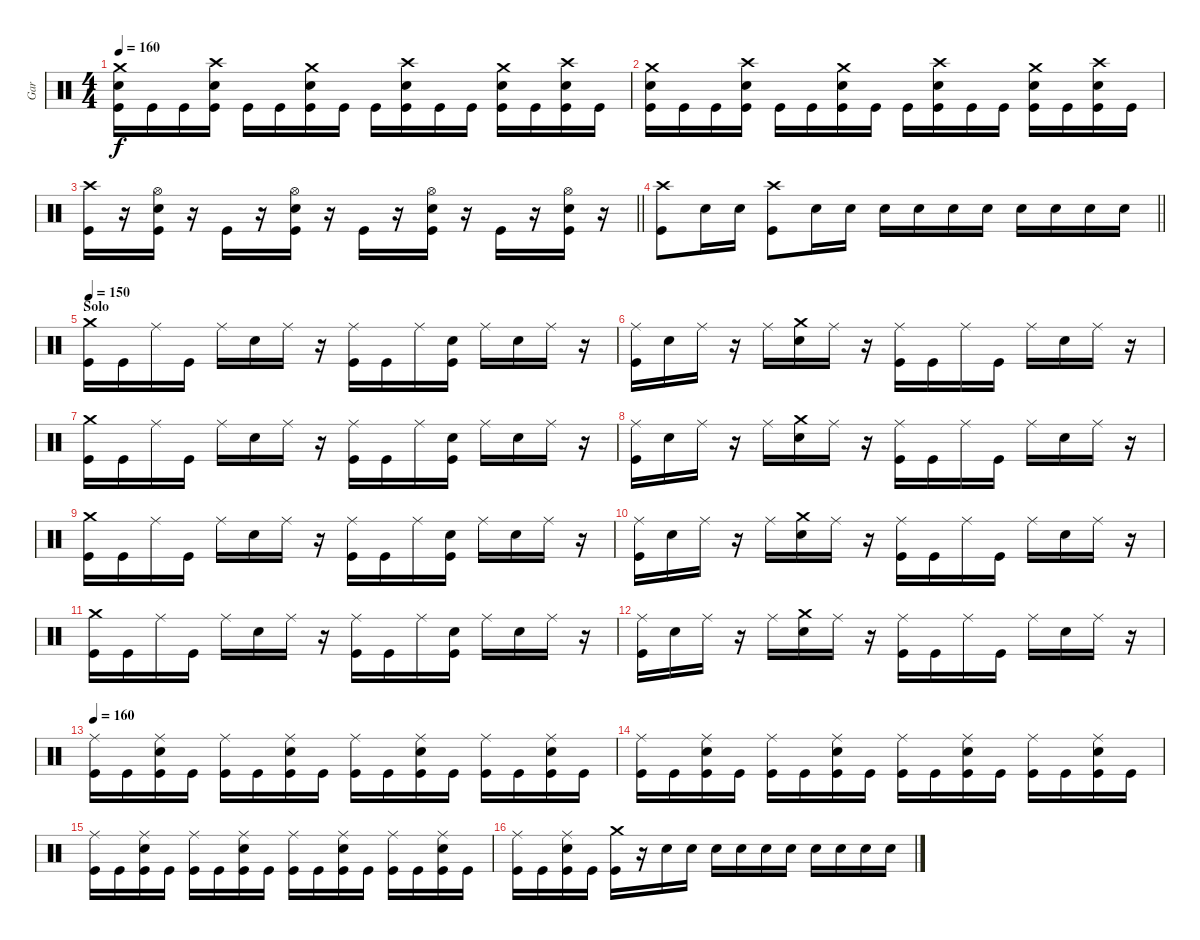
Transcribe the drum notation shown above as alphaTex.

\track ("Gar" "Gar") {instrument percussion}
\staff {score}
\articulation defaults
\ts (4 4)
\tempo 160
\clef neutral
\ks c
("Crash medium (hit)" "Snare (hit) 2" "Kick (hit)").16{dy f} "Kick (hit)".16 "Kick (hit)".16 ("Crash high (hit)" "Snare (hit) 2" "Kick (hit)").16 "Kick (hit)".16 "Kick (hit)".16 ("Crash medium (hit)" "Snare (hit) 2" "Kick (hit)").16 "Kick (hit)".16 "Kick (hit)".16 ("Crash high (hit)" "Snare (hit) 2" "Kick (hit)").16 "Kick (hit)".16 "Kick (hit)".16 ("Crash medium (hit)" "Snare (hit) 2" "Kick (hit)").16 "Kick (hit)".16 ("Crash high (hit)" "Snare (hit) 2" "Kick (hit)").16 "Kick (hit)".16 |
("Crash medium (hit)" "Snare (hit) 2" "Kick (hit)").16 "Kick (hit)".16 "Kick (hit)".16 ("Crash high (hit)" "Snare (hit) 2" "Kick (hit)").16 "Kick (hit)".16 "Kick (hit)".16 ("Crash medium (hit)" "Snare (hit) 2" "Kick (hit)").16 "Kick (hit)".16 "Kick (hit)".16 ("Crash high (hit)" "Snare (hit) 2" "Kick (hit)").16 "Kick (hit)".16 "Kick (hit)".16 ("Crash medium (hit)" "Snare (hit) 2" "Kick (hit)").16 "Kick (hit)".16 ("Crash high (hit)" "Snare (hit) 2" "Kick (hit)").16 "Kick (hit)".16 |
\barLineRight lightlight
("Crash high (hit)" "Kick (hit)").16 r.16 ("Hi-Hat (open)" "Snare (hit) 2" "Kick (hit)").16 r.16 "Kick (hit)".16 r.16 ("Hi-Hat (open)" "Snare (hit) 2" "Kick (hit)").16 r.16 "Kick (hit)".16 r.16 ("Hi-Hat (open)" "Snare (hit) 2" "Kick (hit)").16 r.16 "Kick (hit)".16 r.16 ("Hi-Hat (open)" "Snare (hit) 2" "Kick (hit)").16 r.16 |
\barLineRight lightlight
("Crash high (hit)" "Kick (hit)").8 "Snare (hit) 2".16 "Snare (hit) 2".16 ("Crash high (hit)" "Kick (hit)").8 "Snare (hit) 2".16 "Snare (hit) 2".16 "Snare (hit) 2".16 "Snare (hit) 2".16 "Snare (hit) 2".16 "Snare (hit) 2".16 "Snare (hit) 2".16 "Snare (hit) 2".16 "Snare (hit) 2".16 "Snare (hit) 2".16 |
\section ("" "Solo")
\tempo 150
("Crash medium (hit)" "Kick (hit)").16 "Kick (hit)".16 "Ride (middle)".16 "Kick (hit)".16 "Ride (middle)".16 "Snare (hit) 2".16 "Ride (middle)".16 r.16 ("Ride (middle)" "Kick (hit)").16 "Kick (hit)".16 "Ride (middle)".16 ("Snare (hit) 2" "Kick (hit)").16 "Ride (middle)".16 "Snare (hit) 2".16 "Ride (middle)".16 r.16 |
("Ride (middle)" "Kick (hit)").16 "Snare (hit) 2".16 "Ride (middle)".16 r.16 "Ride (middle)".16 ("Crash medium (hit)" "Snare (hit) 2").16 "Ride (middle)".16 r.16 ("Ride (middle)" "Kick (hit)").16 "Kick (hit)".16 "Ride (middle)".16 "Kick (hit)".16 "Ride (middle)".16 "Snare (hit) 2".16 "Ride (middle)".16 r.16 |
("Crash medium (hit)" "Kick (hit)").16 "Kick (hit)".16 "Ride (middle)".16 "Kick (hit)".16 "Ride (middle)".16 "Snare (hit) 2".16 "Ride (middle)".16 r.16 ("Ride (middle)" "Kick (hit)").16 "Kick (hit)".16 "Ride (middle)".16 ("Snare (hit) 2" "Kick (hit)").16 "Ride (middle)".16 "Snare (hit) 2".16 "Ride (middle)".16 r.16 |
("Ride (middle)" "Kick (hit)").16 "Snare (hit) 2".16 "Ride (middle)".16 r.16 "Ride (middle)".16 ("Crash medium (hit)" "Snare (hit) 2").16 "Ride (middle)".16 r.16 ("Ride (middle)" "Kick (hit)").16 "Kick (hit)".16 "Ride (middle)".16 "Kick (hit)".16 "Ride (middle)".16 "Snare (hit) 2".16 "Ride (middle)".16 r.16 |
("Crash medium (hit)" "Kick (hit)").16 "Kick (hit)".16 "Ride (middle)".16 "Kick (hit)".16 "Ride (middle)".16 "Snare (hit) 2".16 "Ride (middle)".16 r.16 ("Ride (middle)" "Kick (hit)").16 "Kick (hit)".16 "Ride (middle)".16 ("Snare (hit) 2" "Kick (hit)").16 "Ride (middle)".16 "Snare (hit) 2".16 "Ride (middle)".16 r.16 |
("Ride (middle)" "Kick (hit)").16 "Snare (hit) 2".16 "Ride (middle)".16 r.16 "Ride (middle)".16 ("Crash medium (hit)" "Snare (hit) 2").16 "Ride (middle)".16 r.16 ("Ride (middle)" "Kick (hit)").16 "Kick (hit)".16 "Ride (middle)".16 "Kick (hit)".16 "Ride (middle)".16 "Snare (hit) 2".16 "Ride (middle)".16 r.16 |
("Crash medium (hit)" "Kick (hit)").16 "Kick (hit)".16 "Ride (middle)".16 "Kick (hit)".16 "Ride (middle)".16 "Snare (hit) 2".16 "Ride (middle)".16 r.16 ("Ride (middle)" "Kick (hit)").16 "Kick (hit)".16 "Ride (middle)".16 ("Snare (hit) 2" "Kick (hit)").16 "Ride (middle)".16 "Snare (hit) 2".16 "Ride (middle)".16 r.16 |
("Ride (middle)" "Kick (hit)").16 "Snare (hit) 2".16 "Ride (middle)".16 r.16 "Ride (middle)".16 ("Crash medium (hit)" "Snare (hit) 2").16 "Ride (middle)".16 r.16 ("Ride (middle)" "Kick (hit)").16 "Kick (hit)".16 "Ride (middle)".16 "Kick (hit)".16 "Ride (middle)".16 "Snare (hit) 2".16 "Ride (middle)".16 r.16 |
\tempo 160
("Ride (middle)" "Kick (hit)").16 "Kick (hit)".16 ("Ride (middle)" "Snare (hit) 2" "Kick (hit)").16 "Kick (hit)".16 ("Ride (middle)" "Kick (hit)").16 "Kick (hit)".16 ("Ride (middle)" "Snare (hit) 2" "Kick (hit)").16 "Kick (hit)".16 ("Ride (middle)" "Kick (hit)").16 "Kick (hit)".16 ("Ride (middle)" "Snare (hit) 2" "Kick (hit)").16 "Kick (hit)".16 ("Ride (middle)" "Kick (hit)").16 "Kick (hit)".16 ("Ride (middle)" "Snare (hit) 2" "Kick (hit)").16 "Kick (hit)".16 |
("Ride (middle)" "Kick (hit)").16 "Kick (hit)".16 ("Ride (middle)" "Snare (hit) 2" "Kick (hit)").16 "Kick (hit)".16 ("Ride (middle)" "Kick (hit)").16 "Kick (hit)".16 ("Ride (middle)" "Snare (hit) 2" "Kick (hit)").16 "Kick (hit)".16 ("Ride (middle)" "Kick (hit)").16 "Kick (hit)".16 ("Ride (middle)" "Snare (hit) 2" "Kick (hit)").16 "Kick (hit)".16 ("Ride (middle)" "Kick (hit)").16 "Kick (hit)".16 ("Ride (middle)" "Snare (hit) 2" "Kick (hit)").16 "Kick (hit)".16 |
("Ride (middle)" "Kick (hit)").16 "Kick (hit)".16 ("Ride (middle)" "Snare (hit) 2" "Kick (hit)").16 "Kick (hit)".16 ("Ride (middle)" "Kick (hit)").16 "Kick (hit)".16 ("Ride (middle)" "Snare (hit) 2" "Kick (hit)").16 "Kick (hit)".16 ("Ride (middle)" "Kick (hit)").16 "Kick (hit)".16 ("Ride (middle)" "Snare (hit) 2" "Kick (hit)").16 "Kick (hit)".16 ("Ride (middle)" "Kick (hit)").16 "Kick (hit)".16 ("Ride (middle)" "Snare (hit) 2" "Kick (hit)").16 "Kick (hit)".16 |
("Ride (middle)" "Kick (hit)").16 "Kick (hit)".16 ("Ride (middle)" "Snare (hit) 2" "Kick (hit)").16 "Kick (hit)".16 ("Crash medium (hit)" "Kick (hit)").16 r.16 "Snare (hit) 2".16 "Snare (hit) 2".16 "Snare (hit) 2".16 "Snare (hit) 2".16 "Snare (hit) 2".16 "Snare (hit) 2".16 "Snare (hit) 2".16 "Snare (hit) 2".16 "Snare (hit) 2".16 "Snare (hit) 2".16
